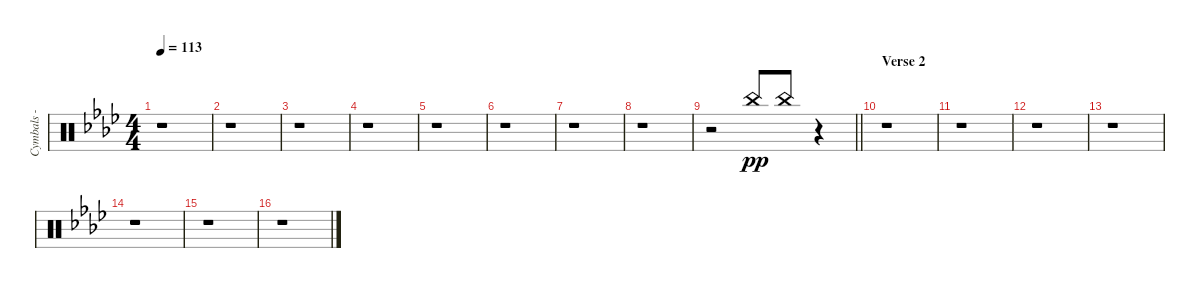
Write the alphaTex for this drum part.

\track ("Cymbals - china" "Cymbals - ") {instrument percussion}
\staff {score}
\articulation defaults
\ts (4 4)
\tempo 113
\clef neutral
\ks fminor
r.1{dy pp} |
r.1 |
r.1 |
r.1 |
r.1 |
r.1 |
r.1 |
r.1 |
\barLineRight lightlight
r.2{beam Up} "China (hit)".8{beam Up} "China (hit)".8{beam Up} r.4 |
\section ("" "Verse 2")
r.1 |
r.1 |
r.1 |
r.1 |
r.1 |
r.1 |
r.1
